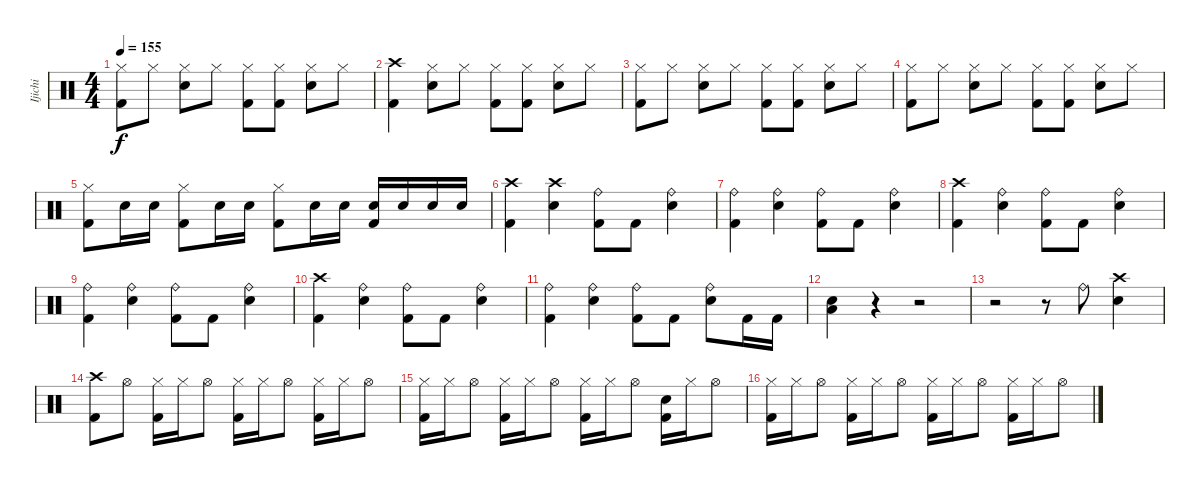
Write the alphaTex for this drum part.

\track ("Ijichi" "Ijichi") {instrument percussion}
\staff {score}
\articulation defaults
\ts (4 4)
\tempo 155
\clef neutral
\ks c
("Hi-Hat (closed)" "Kick (hit) 2").8{dy f} "Hi-Hat (closed)".8 ("Hi-Hat (closed)" "Snare (hit) 2").8 "Hi-Hat (closed)".8 ("Hi-Hat (closed)" "Kick (hit) 2").8 ("Hi-Hat (closed)" "Kick (hit) 2").8 ("Hi-Hat (closed)" "Snare (hit) 2").8 "Hi-Hat (closed)".8 |
("Crash high (hit)" "Kick (hit) 2").4 ("Hi-Hat (closed)" "Snare (hit) 2").8 "Hi-Hat (closed)".8 ("Hi-Hat (closed)" "Kick (hit) 2").8 ("Hi-Hat (closed)" "Kick (hit) 2").8 ("Hi-Hat (closed)" "Snare (hit) 2").8 "Hi-Hat (closed)".8 |
("Hi-Hat (closed)" "Kick (hit) 2").8 "Hi-Hat (closed)".8 ("Hi-Hat (closed)" "Snare (hit) 2").8 "Hi-Hat (closed)".8 ("Hi-Hat (closed)" "Kick (hit) 2").8 ("Hi-Hat (closed)" "Kick (hit) 2").8 ("Hi-Hat (closed)" "Snare (hit) 2").8 "Hi-Hat (closed)".8 |
("Hi-Hat (closed)" "Kick (hit) 2").8 "Hi-Hat (closed)".8 ("Hi-Hat (closed)" "Snare (hit) 2").8 "Hi-Hat (closed)".8 ("Hi-Hat (closed)" "Kick (hit) 2").8 ("Hi-Hat (closed)" "Kick (hit) 2").8 ("Hi-Hat (closed)" "Snare (hit) 2").8 "Hi-Hat (closed)".8 |
("Hi-Hat (closed)" "Kick (hit) 2").8 "Snare (hit) 2".16 "Snare (hit) 2".16 ("Hi-Hat (closed)" "Kick (hit) 2").8 "Snare (hit) 2".16 "Snare (hit) 2".16 ("Hi-Hat (closed)" "Kick (hit) 2").8 "Snare (hit) 2".16 "Snare (hit) 2".16 ("Snare (hit) 2" "Kick (hit) 2").16 "Snare (hit) 2".16 "Snare (hit) 2".16 "Snare (hit) 2".16 |
("Crash high (hit)" "Kick (hit) 2").4 ("Crash high (hit)" "Snare (hit) 2").4 ("Ride (bell)" "Kick (hit) 2").8 "Kick (hit) 2".8 ("Ride (bell)" "Snare (hit) 2").4 |
("Ride (bell)" "Kick (hit) 2").4 ("Ride (bell)" "Snare (hit) 2").4 ("Ride (bell)" "Kick (hit) 2").8 "Kick (hit) 2".8 ("Ride (bell)" "Snare (hit) 2").4 |
("Crash high (hit)" "Kick (hit) 2").4 ("Ride (bell)" "Snare (hit) 2").4 ("Ride (bell)" "Kick (hit) 2").8 "Kick (hit) 2".8 ("Ride (bell)" "Snare (hit) 2").4 |
("Ride (bell)" "Kick (hit) 2").4 ("Ride (bell)" "Snare (hit) 2").4 ("Ride (bell)" "Kick (hit) 2").8 "Kick (hit) 2".8 ("Ride (bell)" "Snare (hit) 2").4 |
("Crash high (hit)" "Kick (hit) 2").4 ("Ride (bell)" "Snare (hit) 2").4 ("Ride (bell)" "Kick (hit) 2").8 "Kick (hit) 2".8 ("Ride (bell)" "Snare (hit) 2").4 |
("Ride (bell)" "Kick (hit) 2").4 ("Ride (bell)" "Snare (hit) 2").4 ("Ride (bell)" "Kick (hit) 2").8 "Kick (hit) 2".8 ("Ride (bell)" "Snare (hit) 2").8 "Kick (hit) 2".16 "Kick (hit) 2".16 |
("Snare (hit) 2" "Low Floor Tom (hit)").4 r.4 r.2 |
r.2 r.8 "Ride (bell)".8 ("Crash high (hit)" "Snare (hit) 2").4 |
("Crash high (hit)" "Kick (hit) 2").8 "Hi-Hat (open)".8 ("Hi-Hat (closed)" "Kick (hit) 2").16 "Hi-Hat (closed)".16 "Hi-Hat (open)".8 ("Hi-Hat (closed)" "Kick (hit) 2").16 "Hi-Hat (closed)".16 "Hi-Hat (open)".8 ("Hi-Hat (closed)" "Kick (hit) 2").16 "Hi-Hat (closed)".16 "Hi-Hat (open)".8 |
("Hi-Hat (closed)" "Kick (hit) 2").16 "Hi-Hat (closed)".16 "Hi-Hat (open)".8 ("Hi-Hat (closed)" "Kick (hit) 2").16 "Hi-Hat (closed)".16 "Hi-Hat (open)".8 ("Hi-Hat (closed)" "Kick (hit) 2").16 "Hi-Hat (closed)".16 "Hi-Hat (open)".8 ("Snare (hit) 2" "Kick (hit) 2").16 "Hi-Hat (closed)".16 "Hi-Hat (open)".8 |
("Hi-Hat (closed)" "Kick (hit) 2").16 "Hi-Hat (closed)".16 "Hi-Hat (open)".8 ("Hi-Hat (closed)" "Kick (hit) 2").16 "Hi-Hat (closed)".16 "Hi-Hat (open)".8 ("Hi-Hat (closed)" "Kick (hit) 2").16 "Hi-Hat (closed)".16 "Hi-Hat (open)".8 ("Hi-Hat (closed)" "Kick (hit) 2").16 "Hi-Hat (closed)".16 "Hi-Hat (open)".8
